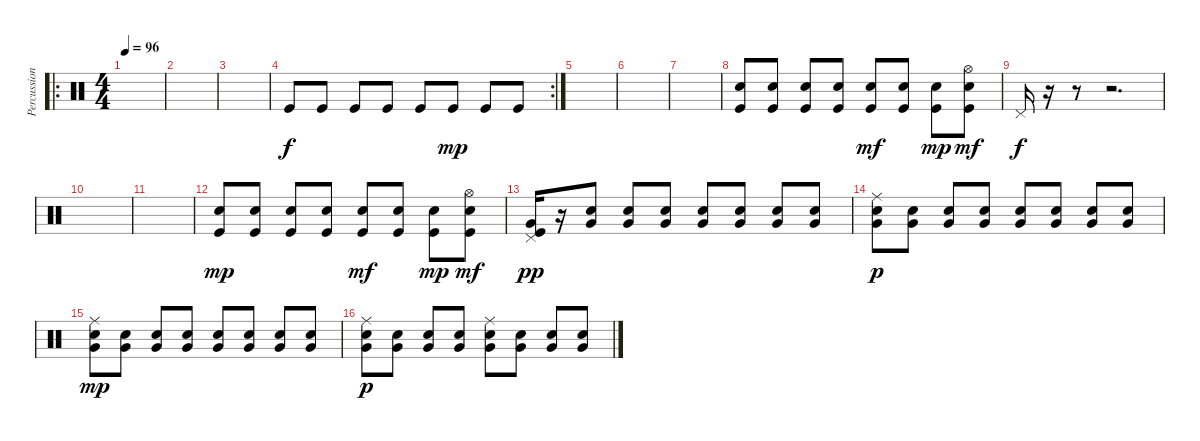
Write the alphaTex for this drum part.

\track ("Percussions" "Percussion") {instrument percussion}
\staff {score}
\articulation defaults
\ro
\ts (4 4)
\tempo 96
\clef neutral
\ks c
|
|
|
\rc 2 "Kick (hit)".8 "Kick (hit)".8 "Kick (hit)".8 "Kick (hit)".8 "Kick (hit)".8 "Kick (hit)".8{dy mp} "Kick (hit)".8 "Kick (hit)".8
|
|
|
|
("Snare (hit) 2" "Kick (hit)").8 ("Snare (hit) 2" "Kick (hit)").8 ("Snare (hit) 2" "Kick (hit)").8 ("Snare (hit) 2" "Kick (hit)").8 ("Snare (hit) 2" "Kick (hit)").8{dy mf} ("Snare (hit) 2" "Kick (hit)").8 ("Snare (hit) 2" "Kick (hit)").8{dy mp} ("Hi-Hat (open)" "Snare (hit) 2" "Kick (hit)").8{dy mf} |
"Pedal Hi-Hat (hit)".16{dy f} r.16 r.8 r.2{d} |
|
|
("Snare (hit) 2" "Kick (hit)").8{dy mp} ("Snare (hit) 2" "Kick (hit)").8 ("Snare (hit) 2" "Kick (hit)").8 ("Snare (hit) 2" "Kick (hit)").8 ("Snare (hit) 2" "Kick (hit)").8{dy mf} ("Snare (hit) 2" "Kick (hit)").8 ("Snare (hit) 2" "Kick (hit)").8{dy mp} ("Hi-Hat (open)" "Snare (hit) 2" "Kick (hit)").8{dy mf} |
("Pedal Hi-Hat (hit)" "Kick (hit)" "Very Low Tom (hit)").16{dy pp} r.16 ("Snare (hit) 2" "Very Low Tom (hit)").8 ("Snare (hit) 2" "Very Low Tom (hit)").8 ("Snare (hit) 2" "Very Low Tom (hit)").8 ("Snare (hit) 2" "Very Low Tom (hit)").8 ("Snare (hit) 2" "Very Low Tom (hit)").8 ("Snare (hit) 2" "Very Low Tom (hit)").8 ("Snare (hit) 2" "Very Low Tom (hit)").8 |
("Ride (middle)" "Snare (hit) 2" "Very Low Tom (hit)").8{dy p} ("Snare (hit) 2" "Very Low Tom (hit)").8 ("Snare (hit) 2" "Very Low Tom (hit)").8 ("Snare (hit) 2" "Very Low Tom (hit)").8 ("Snare (hit) 2" "Very Low Tom (hit)").8 ("Snare (hit) 2" "Very Low Tom (hit)").8 ("Snare (hit) 2" "Very Low Tom (hit)").8 ("Snare (hit) 2" "Very Low Tom (hit)").8 |
("Ride (middle)" "Snare (hit) 2" "Very Low Tom (hit)").8{dy mp} ("Snare (hit) 2" "Very Low Tom (hit)").8 ("Snare (hit) 2" "Very Low Tom (hit)").8 ("Snare (hit) 2" "Very Low Tom (hit)").8 ("Snare (hit) 2" "Very Low Tom (hit)").8 ("Snare (hit) 2" "Very Low Tom (hit)").8 ("Snare (hit) 2" "Very Low Tom (hit)").8 ("Snare (hit) 2" "Very Low Tom (hit)").8 |
("Ride (middle)" "Snare (hit) 2" "Very Low Tom (hit)").8{dy p} ("Snare (hit) 2" "Very Low Tom (hit)").8 ("Snare (hit) 2" "Very Low Tom (hit)").8 ("Snare (hit) 2" "Very Low Tom (hit)").8 ("Ride (middle)" "Snare (hit) 2" "Very Low Tom (hit)").8 ("Snare (hit) 2" "Very Low Tom (hit)").8 ("Snare (hit) 2" "Very Low Tom (hit)").8 ("Snare (hit) 2" "Very Low Tom (hit)").8
